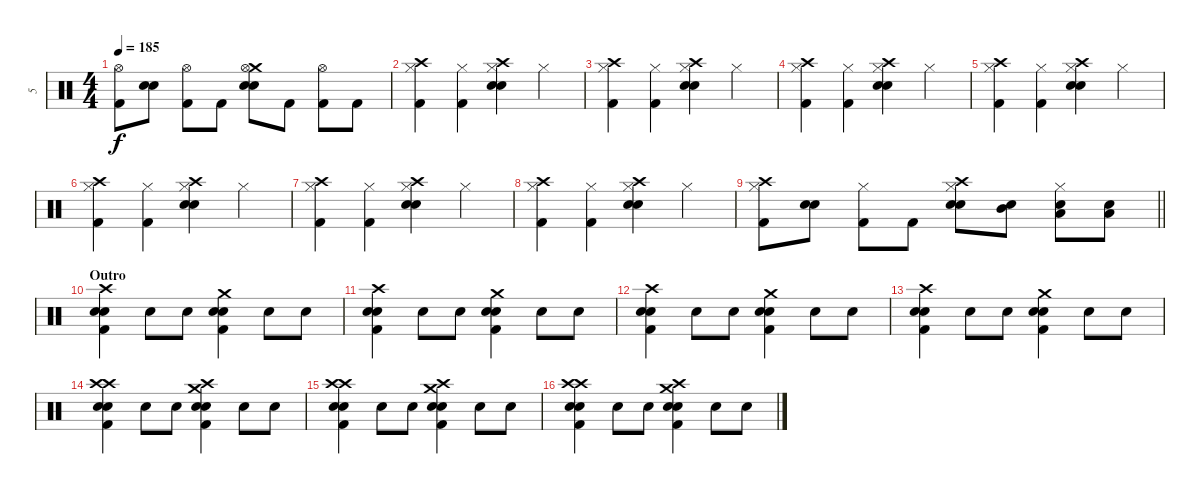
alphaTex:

\track ("5" "5") {instrument percussion}
\staff {score}
\articulation defaults
\ts (4 4)
\tempo 185
\clef neutral
\ks c
("Hi-Hat (open)" "Kick (hit) 2").8{dy f} ("Electric Snare (hit)" "Snare (hit) 2").8 ("Hi-Hat (open)" "Kick (hit) 2").8 "Kick (hit) 2".8 ("Crash medium (hit)" "Hi-Hat (open)" "Electric Snare (hit)" "Snare (hit) 2").8 "Kick (hit) 2".8 ("Hi-Hat (open)" "Kick (hit) 2").8 "Kick (hit) 2".8 |
("Crash high (hit)" "Hi-Hat (closed)" "Kick (hit) 2").4 ("Hi-Hat (closed)" "Kick (hit) 2").4 ("Crash high (hit)" "Hi-Hat (closed)" "Electric Snare (hit)" "Snare (hit) 2").4 "Hi-Hat (closed)".4 |
("Crash high (hit)" "Hi-Hat (closed)" "Kick (hit) 2").4 ("Hi-Hat (closed)" "Kick (hit) 2").4 ("Crash high (hit)" "Hi-Hat (closed)" "Electric Snare (hit)" "Snare (hit) 2").4 "Hi-Hat (closed)".4 |
("Crash high (hit)" "Hi-Hat (closed)" "Kick (hit) 2").4 ("Hi-Hat (closed)" "Kick (hit) 2").4 ("Crash high (hit)" "Hi-Hat (closed)" "Electric Snare (hit)" "Snare (hit) 2").4 "Hi-Hat (closed)".4 |
("Crash high (hit)" "Hi-Hat (closed)" "Kick (hit) 2").4 ("Hi-Hat (closed)" "Kick (hit) 2").4 ("Crash high (hit)" "Hi-Hat (closed)" "Electric Snare (hit)" "Snare (hit) 2").4 "Hi-Hat (closed)".4 |
("Crash high (hit)" "Hi-Hat (closed)" "Kick (hit) 2").4 ("Hi-Hat (closed)" "Kick (hit) 2").4 ("Crash high (hit)" "Hi-Hat (closed)" "Electric Snare (hit)" "Snare (hit) 2").4 "Hi-Hat (closed)".4 |
("Crash high (hit)" "Hi-Hat (closed)" "Kick (hit) 2").4 ("Hi-Hat (closed)" "Kick (hit) 2").4 ("Crash high (hit)" "Hi-Hat (closed)" "Electric Snare (hit)" "Snare (hit) 2").4 "Hi-Hat (closed)".4 |
("Crash high (hit)" "Hi-Hat (closed)" "Kick (hit) 2").4 ("Hi-Hat (closed)" "Kick (hit) 2").4 ("Crash high (hit)" "Hi-Hat (closed)" "Electric Snare (hit)" "Snare (hit) 2").4 "Hi-Hat (closed)".4 |
\barLineRight lightlight
("Crash high (hit)" "Hi-Hat (closed)" "Kick (hit) 2").8 ("Electric Snare (hit)" "Snare (hit) 2").8 ("Hi-Hat (closed)" "Kick (hit) 2").8 "Kick (hit) 2".8 ("Crash high (hit)" "Hi-Hat (closed)" "Electric Snare (hit)" "Snare (hit) 2").8 ("Snare (hit) 2" "Mid Tom (hit)").8 ("Hi-Hat (closed)" "Snare (hit) 2" "Low Tom (hit)").8 ("Snare (hit) 2" "Low Floor Tom (hit)").8 |
\section ("" "Outro")
("Crash high (hit)" "Electric Snare (hit)" "Snare (hit) 2" "Kick (hit) 2").4 "Electric Snare (hit)".8 "Electric Snare (hit)".8 ("Crash medium (hit)" "Electric Snare (hit)" "Snare (hit) 2" "Kick (hit) 2").4 "Electric Snare (hit)".8 "Electric Snare (hit)".8 |
("Crash high (hit)" "Electric Snare (hit)" "Snare (hit) 2" "Kick (hit) 2").4 "Electric Snare (hit)".8 "Electric Snare (hit)".8 ("Crash medium (hit)" "Electric Snare (hit)" "Snare (hit) 2" "Kick (hit) 2").4 "Electric Snare (hit)".8 "Electric Snare (hit)".8 |
("Crash high (hit)" "Electric Snare (hit)" "Snare (hit) 2" "Kick (hit) 2").4 "Electric Snare (hit)".8 "Electric Snare (hit)".8 ("Crash medium (hit)" "Electric Snare (hit)" "Snare (hit) 2" "Kick (hit) 2").4 "Electric Snare (hit)".8 "Electric Snare (hit)".8 |
("Crash high (hit)" "Electric Snare (hit)" "Snare (hit) 2" "Kick (hit) 2").4 "Electric Snare (hit)".8 "Electric Snare (hit)".8 ("Crash medium (hit)" "Electric Snare (hit)" "Snare (hit) 2" "Kick (hit) 2").4 "Electric Snare (hit)".8 "Electric Snare (hit)".8 |
("Crash high (hit)" "Crash high (hit)" "Electric Snare (hit)" "Snare (hit) 2" "Kick (hit) 2").4 "Electric Snare (hit)".8 "Electric Snare (hit)".8 ("Crash high (hit)" "Crash medium (hit)" "Electric Snare (hit)" "Snare (hit) 2" "Kick (hit) 2").4 "Electric Snare (hit)".8 "Electric Snare (hit)".8 |
("Crash high (hit)" "Crash high (hit)" "Electric Snare (hit)" "Snare (hit) 2" "Kick (hit) 2").4 "Electric Snare (hit)".8 "Electric Snare (hit)".8 ("Crash high (hit)" "Crash medium (hit)" "Electric Snare (hit)" "Snare (hit) 2" "Kick (hit) 2").4 "Electric Snare (hit)".8 "Electric Snare (hit)".8 |
("Crash high (hit)" "Crash high (hit)" "Electric Snare (hit)" "Snare (hit) 2" "Kick (hit) 2").4 "Electric Snare (hit)".8 "Electric Snare (hit)".8 ("Crash high (hit)" "Crash medium (hit)" "Electric Snare (hit)" "Snare (hit) 2" "Kick (hit) 2").4 "Electric Snare (hit)".8 "Electric Snare (hit)".8
